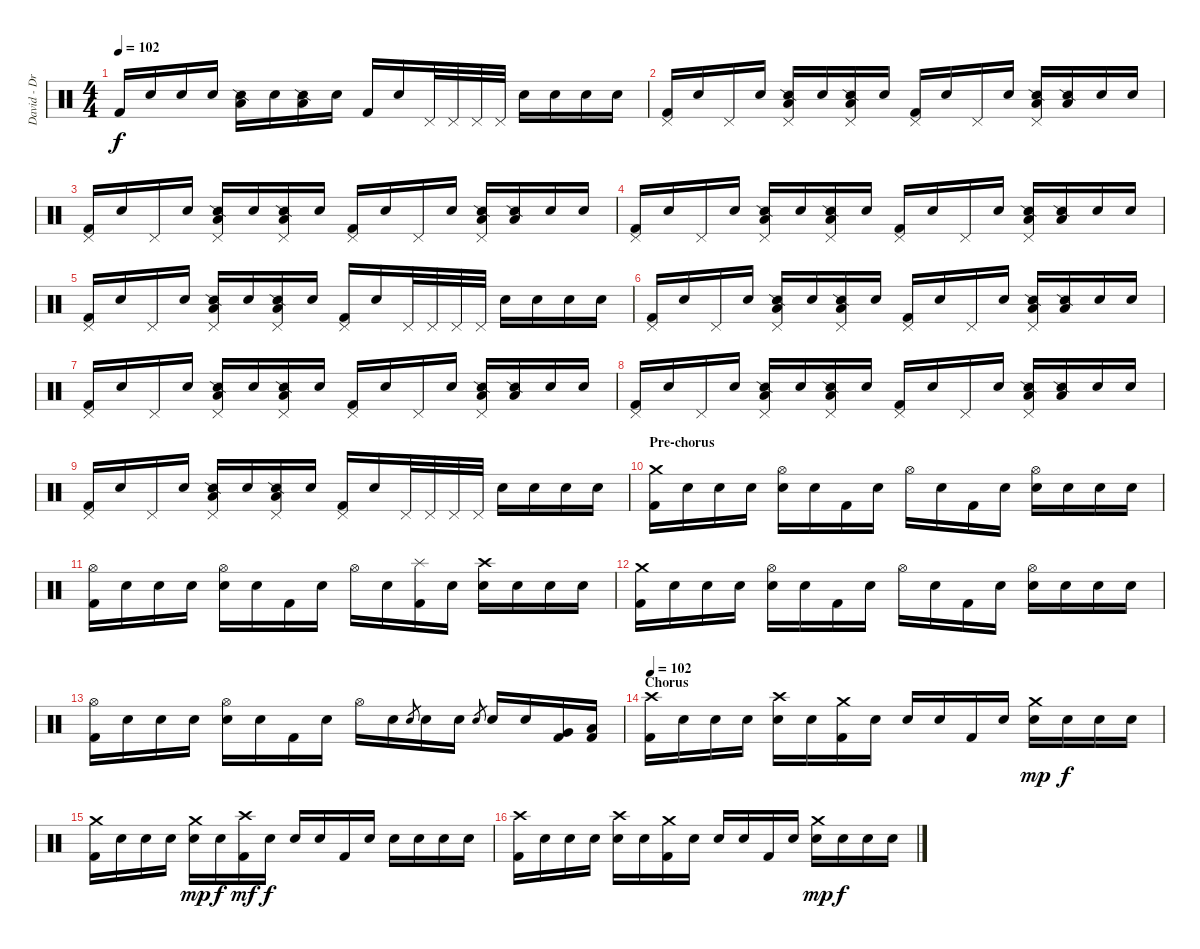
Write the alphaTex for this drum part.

\track ("David - Drums" "David - Dr") {instrument percussion}
\staff {score}
\articulation defaults
\ts (4 4)
\tempo 102
\clef neutral
\ks c "Kick (hit) 2".16{dy f} "Snare (hit)".16 "Snare (hit)".16 "Snare (hit)".16
("Low Floor Tom (hit)" "Snare (side stick) 2").16 "Snare (hit)".16 ("Low Floor Tom (hit)" "Snare (side stick) 2").16 "Snare (hit)".16 "Kick (hit) 2".16 "Snare (hit)".16 "Pedal Hi-Hat (hit)".32 "Pedal Hi-Hat (hit)".32 "Pedal Hi-Hat (hit)".32 "Pedal Hi-Hat (hit)".32 "Snare (hit)".16 "Snare (hit)".16 "Snare (hit)".16 "Snare (hit)".16 |
("Pedal Hi-Hat (hit)" "Kick (hit) 2").16{volume 16 balance 8} "Snare (hit)".16 "Pedal Hi-Hat (hit)".16 "Snare (hit)".16 ("Pedal Hi-Hat (hit)" "Low Floor Tom (hit)" "Snare (side stick) 2").16 "Snare (hit)".16 ("Pedal Hi-Hat (hit)" "Low Floor Tom (hit)" "Snare (side stick) 2").16 "Snare (hit)".16 ("Pedal Hi-Hat (hit)" "Kick (hit) 2").16 "Snare (hit)".16 "Pedal Hi-Hat (hit)".16 "Snare (hit)".16 ("Pedal Hi-Hat (hit)" "Low Floor Tom (hit)" "Snare (side stick) 2").16 ("Low Floor Tom (hit)" "Snare (side stick) 2").16 "Snare (hit)".16 "Snare (hit)".16 |
("Pedal Hi-Hat (hit)" "Kick (hit) 2").16 "Snare (hit)".16 "Pedal Hi-Hat (hit)".16 "Snare (hit)".16 ("Pedal Hi-Hat (hit)" "Low Floor Tom (hit)" "Snare (side stick) 2").16 "Snare (hit)".16 ("Pedal Hi-Hat (hit)" "Low Floor Tom (hit)" "Snare (side stick) 2").16 "Snare (hit)".16 ("Pedal Hi-Hat (hit)" "Kick (hit) 2").16 "Snare (hit)".16 "Pedal Hi-Hat (hit)".16 "Snare (hit)".16 ("Pedal Hi-Hat (hit)" "Low Floor Tom (hit)" "Snare (side stick) 2").16 ("Low Floor Tom (hit)" "Snare (side stick) 2").16 "Snare (hit)".16 "Snare (hit)".16 |
("Pedal Hi-Hat (hit)" "Kick (hit) 2").16 "Snare (hit)".16 "Pedal Hi-Hat (hit)".16 "Snare (hit)".16 ("Pedal Hi-Hat (hit)" "Low Floor Tom (hit)" "Snare (side stick) 2").16 "Snare (hit)".16 ("Pedal Hi-Hat (hit)" "Low Floor Tom (hit)" "Snare (side stick) 2").16 "Snare (hit)".16 ("Pedal Hi-Hat (hit)" "Kick (hit) 2").16 "Snare (hit)".16 "Pedal Hi-Hat (hit)".16 "Snare (hit)".16 ("Pedal Hi-Hat (hit)" "Low Floor Tom (hit)" "Snare (side stick) 2").16 ("Low Floor Tom (hit)" "Snare (side stick) 2").16 "Snare (hit)".16 "Snare (hit)".16 |
("Pedal Hi-Hat (hit)" "Kick (hit) 2").16 "Snare (hit)".16 "Pedal Hi-Hat (hit)".16 "Snare (hit)".16 ("Pedal Hi-Hat (hit)" "Low Floor Tom (hit)" "Snare (side stick) 2").16 "Snare (hit)".16 ("Pedal Hi-Hat (hit)" "Low Floor Tom (hit)" "Snare (side stick) 2").16 "Snare (hit)".16 ("Pedal Hi-Hat (hit)" "Kick (hit) 2").16 "Snare (hit)".16 "Pedal Hi-Hat (hit)".32 "Pedal Hi-Hat (hit)".32 "Pedal Hi-Hat (hit)".32 "Pedal Hi-Hat (hit)".32 "Snare (hit)".16 "Snare (hit)".16 "Snare (hit)".16 "Snare (hit)".16 |
("Pedal Hi-Hat (hit)" "Kick (hit) 2").16 "Snare (hit)".16 "Pedal Hi-Hat (hit)".16 "Snare (hit)".16 ("Pedal Hi-Hat (hit)" "Low Floor Tom (hit)" "Snare (side stick) 2").16 "Snare (hit)".16 ("Pedal Hi-Hat (hit)" "Low Floor Tom (hit)" "Snare (side stick) 2").16 "Snare (hit)".16 ("Pedal Hi-Hat (hit)" "Kick (hit) 2").16 "Snare (hit)".16 "Pedal Hi-Hat (hit)".16 "Snare (hit)".16 ("Pedal Hi-Hat (hit)" "Low Floor Tom (hit)" "Snare (side stick) 2").16 ("Low Floor Tom (hit)" "Snare (side stick) 2").16 "Snare (hit)".16 "Snare (hit)".16 |
("Pedal Hi-Hat (hit)" "Kick (hit) 2").16 "Snare (hit)".16 "Pedal Hi-Hat (hit)".16 "Snare (hit)".16 ("Pedal Hi-Hat (hit)" "Low Floor Tom (hit)" "Snare (side stick) 2").16 "Snare (hit)".16 ("Pedal Hi-Hat (hit)" "Low Floor Tom (hit)" "Snare (side stick) 2").16 "Snare (hit)".16 ("Pedal Hi-Hat (hit)" "Kick (hit) 2").16 "Snare (hit)".16 "Pedal Hi-Hat (hit)".16 "Snare (hit)".16 ("Pedal Hi-Hat (hit)" "Low Floor Tom (hit)" "Snare (side stick) 2").16 ("Low Floor Tom (hit)" "Snare (side stick) 2").16 "Snare (hit)".16 "Snare (hit)".16 |
("Pedal Hi-Hat (hit)" "Kick (hit) 2").16 "Snare (hit)".16 "Pedal Hi-Hat (hit)".16 "Snare (hit)".16 ("Pedal Hi-Hat (hit)" "Low Floor Tom (hit)" "Snare (side stick) 2").16 "Snare (hit)".16 ("Pedal Hi-Hat (hit)" "Low Floor Tom (hit)" "Snare (side stick) 2").16 "Snare (hit)".16 ("Pedal Hi-Hat (hit)" "Kick (hit) 2").16 "Snare (hit)".16 "Pedal Hi-Hat (hit)".16 "Snare (hit)".16 ("Pedal Hi-Hat (hit)" "Low Floor Tom (hit)" "Snare (side stick) 2").16 ("Low Floor Tom (hit)" "Snare (side stick) 2").16 "Snare (hit)".16 "Snare (hit)".16 |
("Pedal Hi-Hat (hit)" "Kick (hit) 2").16 "Snare (hit)".16 "Pedal Hi-Hat (hit)".16 "Snare (hit)".16 ("Pedal Hi-Hat (hit)" "Low Floor Tom (hit)" "Snare (side stick) 2").16 "Snare (hit)".16 ("Pedal Hi-Hat (hit)" "Low Floor Tom (hit)" "Snare (side stick) 2").16 "Snare (hit)".16 ("Pedal Hi-Hat (hit)" "Kick (hit) 2").16 "Snare (hit)".16 "Pedal Hi-Hat (hit)".32 "Pedal Hi-Hat (hit)".32 "Pedal Hi-Hat (hit)".32 "Pedal Hi-Hat (hit)".32 "Snare (hit)".16 "Snare (hit)".16 "Snare (hit)".16 "Snare (hit)".16 |
\section ("" "Pre-chorus")
("Crash medium (hit)" "Kick (hit) 2").16{volume 16 balance 8} "Snare (hit)".16 "Snare (hit)".16 "Snare (hit)".16 ("Hi-Hat (open)" "Electric Snare (hit)").16 "Snare (hit)".16 "Kick (hit) 2".16 "Snare (hit)".16 "Hi-Hat (open)".16 "Snare (hit)".16 "Kick (hit) 2".16 "Snare (hit)".16 ("Hi-Hat (open)" "Electric Snare (hit)").16 "Snare (hit)".16 "Snare (hit)".16 "Snare (hit)".16 |
("Hi-Hat (open)" "Kick (hit) 2").16 "Snare (hit)".16 "Snare (hit)".16 "Snare (hit)".16 ("Hi-Hat (open)" "Electric Snare (hit)").16 "Snare (hit)".16 "Kick (hit) 2".16 "Snare (hit)".16 "Hi-Hat (open)".16 "Snare (hit)".16 ("Splash (hit)" "Kick (hit) 2").16 "Snare (hit)".16 ("Crash high (hit)" "Electric Snare (hit)").16 "Snare (hit)".16 "Snare (hit)".16 "Snare (hit)".16 |
("Crash medium (hit)" "Kick (hit) 2").16 "Snare (hit)".16 "Snare (hit)".16 "Snare (hit)".16 ("Hi-Hat (open)" "Electric Snare (hit)").16 "Snare (hit)".16 "Kick (hit) 2".16 "Snare (hit)".16 "Hi-Hat (open)".16 "Snare (hit)".16 "Kick (hit) 2".16 "Snare (hit)".16 ("Hi-Hat (open)" "Electric Snare (hit)").16 "Snare (hit)".16 "Snare (hit)".16 "Snare (hit)".16 |
("Hi-Hat (open)" "Kick (hit) 2").16 "Snare (hit)".16 "Snare (hit)".16 "Snare (hit)".16 ("Hi-Hat (open)" "Electric Snare (hit)").16 "Snare (hit)".16 "Kick (hit) 2".16 "Snare (hit)".16 "Hi-Hat (open)".16 "Snare (hit)".16 "Electric Snare (hit)".8{gr} "Electric Snare (hit)".16 "Snare (hit)".16 "Electric Snare (hit)".8{gr} "Electric Snare (hit)".16 "Snare (hit)".16 ("Very Low Tom (hit)" "Kick (hit) 2").16 ("Low Floor Tom (hit)" "Kick (hit) 2").16 |
\section ("" "Chorus")
\tempo 102
("Crash high (hit)" "Kick (hit) 2").16{volume 16 balance 8} "Snare (hit)".16 "Snare (hit)".16 "Snare (hit)".16 ("Crash high (hit)" "Electric Snare (hit)").16 "Snare (hit)".16 ("Crash medium (hit)" "Kick (hit) 2").16 "Snare (hit)".16 "Snare (hit)".16 "Snare (hit)".16 "Kick (hit) 2".16 "Snare (hit)".16 ("Crash medium (hit)" "Electric Snare (hit)").16{dy mp} "Snare (hit)".16{dy f} "Snare (hit)".16 "Snare (hit)".16 |
("Crash medium (hit)" "Kick (hit) 2").16 "Snare (hit)".16 "Snare (hit)".16 "Snare (hit)".16 ("Crash medium (hit)" "Electric Snare (hit)").16{dy mp} "Snare (hit)".16{dy f} ("Crash high (hit)" "Kick (hit) 2").16{dy mf} "Snare (hit)".16{dy f} "Snare (hit)".16 "Snare (hit)".16 "Kick (hit) 2".16 "Snare (hit)".16 "Electric Snare (hit)".16 "Snare (hit)".16 "Snare (hit)".16 "Snare (hit)".16 |
("Crash high (hit)" "Kick (hit) 2").16 "Snare (hit)".16 "Snare (hit)".16 "Snare (hit)".16 ("Crash high (hit)" "Electric Snare (hit)").16 "Snare (hit)".16 ("Crash medium (hit)" "Kick (hit) 2").16 "Snare (hit)".16 "Snare (hit)".16 "Snare (hit)".16 "Kick (hit) 2".16 "Snare (hit)".16 ("Crash medium (hit)" "Electric Snare (hit)").16{dy mp} "Snare (hit)".16{dy f} "Snare (hit)".16 "Snare (hit)".16
